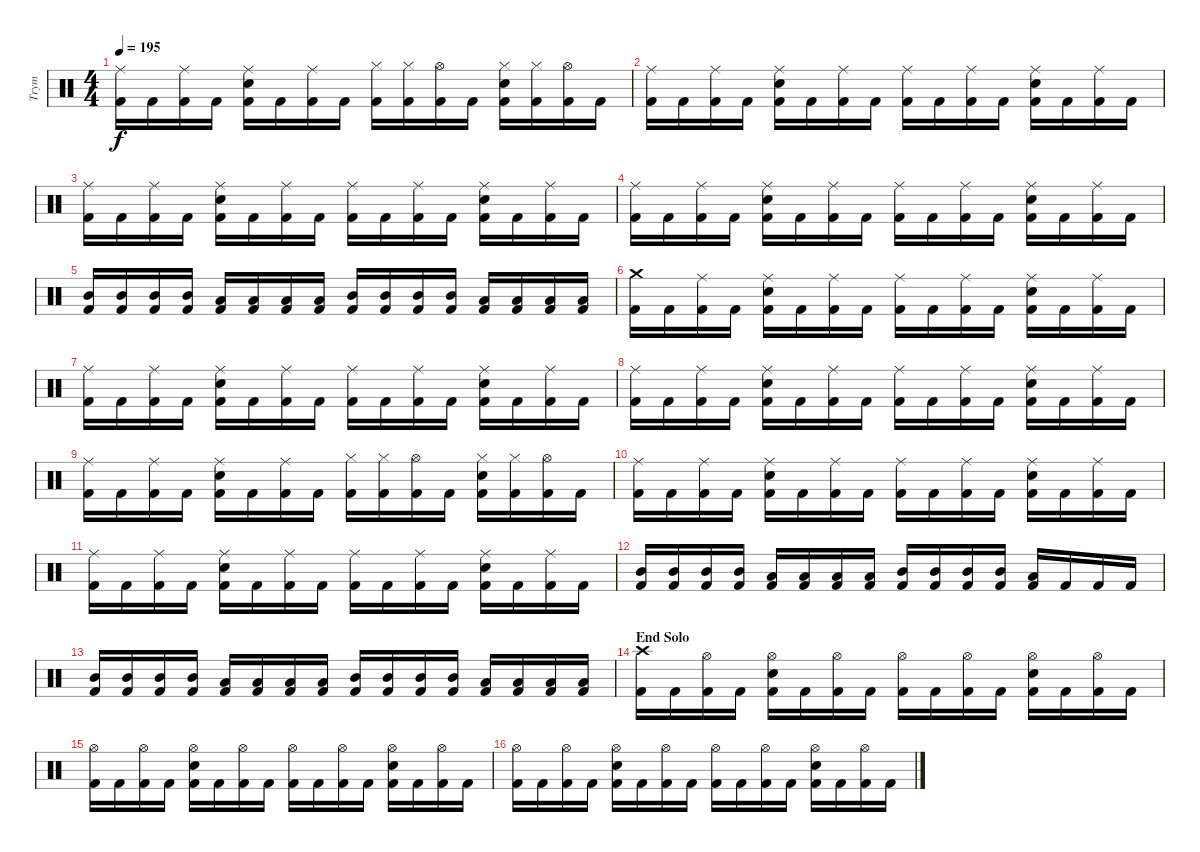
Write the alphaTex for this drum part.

\track ("Trym" "Trym") {instrument percussion}
\staff {score}
\articulation defaults
\ts (4 4)
\tempo 195
\clef neutral
\ks c
("Ride (middle)" "Kick (hit) 2").16{dy f} "Kick (hit) 2".16 ("Ride (middle)" "Kick (hit) 2").16 "Kick (hit) 2".16 ("Ride (middle)" "Electric Snare (hit)" "Kick (hit) 2").16 "Kick (hit) 2".16 ("Ride (middle)" "Kick (hit) 2").16 "Kick (hit) 2".16 ("Hi-Hat (closed)" "Kick (hit) 2").16 ("Hi-Hat (closed)" "Kick (hit) 2").16 ("Hi-Hat (open)" "Kick (hit) 2").16 "Kick (hit) 2".16 ("Hi-Hat (closed)" "Electric Snare (hit)" "Kick (hit) 2").16 ("Hi-Hat (closed)" "Kick (hit) 2").16 ("Hi-Hat (open)" "Kick (hit) 2").16 "Kick (hit) 2".16 |
("Ride (middle)" "Kick (hit) 2").16 "Kick (hit) 2".16 ("Ride (middle)" "Kick (hit) 2").16 "Kick (hit) 2".16 ("Ride (middle)" "Electric Snare (hit)" "Kick (hit) 2").16 "Kick (hit) 2".16 ("Ride (middle)" "Kick (hit) 2").16 "Kick (hit) 2".16 ("Ride (middle)" "Kick (hit) 2").16 "Kick (hit) 2".16 ("Ride (middle)" "Kick (hit) 2").16 "Kick (hit) 2".16 ("Ride (middle)" "Electric Snare (hit)" "Kick (hit) 2").16 "Kick (hit) 2".16 ("Ride (middle)" "Kick (hit) 2").16 "Kick (hit) 2".16 |
("Ride (middle)" "Kick (hit) 2").16 "Kick (hit) 2".16 ("Ride (middle)" "Kick (hit) 2").16 "Kick (hit) 2".16 ("Ride (middle)" "Electric Snare (hit)" "Kick (hit) 2").16 "Kick (hit) 2".16 ("Ride (middle)" "Kick (hit) 2").16 "Kick (hit) 2".16 ("Ride (middle)" "Kick (hit) 2").16 "Kick (hit) 2".16 ("Ride (middle)" "Kick (hit) 2").16 "Kick (hit) 2".16 ("Ride (middle)" "Electric Snare (hit)" "Kick (hit) 2").16 "Kick (hit) 2".16 ("Ride (middle)" "Kick (hit) 2").16 "Kick (hit) 2".16 |
("Ride (middle)" "Kick (hit) 2").16 "Kick (hit) 2".16 ("Ride (middle)" "Kick (hit) 2").16 "Kick (hit) 2".16 ("Ride (middle)" "Electric Snare (hit)" "Kick (hit) 2").16 "Kick (hit) 2".16 ("Ride (middle)" "Kick (hit) 2").16 "Kick (hit) 2".16 ("Ride (middle)" "Kick (hit) 2").16 "Kick (hit) 2".16 ("Ride (middle)" "Kick (hit) 2").16 "Kick (hit) 2".16 ("Ride (middle)" "Electric Snare (hit)" "Kick (hit) 2").16 "Kick (hit) 2".16 ("Ride (middle)" "Kick (hit) 2").16 "Kick (hit) 2".16 |
("Mid Tom (hit)" "Kick (hit) 2").16 ("Mid Tom (hit)" "Kick (hit) 2").16 ("Mid Tom (hit)" "Kick (hit) 2").16 ("Mid Tom (hit)" "Kick (hit) 2").16 ("Low Tom (hit)" "Kick (hit) 2").16 ("Low Tom (hit)" "Kick (hit) 2").16 ("Low Tom (hit)" "Kick (hit) 2").16 ("Low Tom (hit)" "Kick (hit) 2").16 ("Mid Tom (hit)" "Kick (hit) 2").16 ("Mid Tom (hit)" "Kick (hit) 2").16 ("Mid Tom (hit)" "Kick (hit) 2").16 ("Mid Tom (hit)" "Kick (hit) 2").16 ("Low Tom (hit)" "Kick (hit) 2").16 ("Low Tom (hit)" "Kick (hit) 2").16 ("Low Tom (hit)" "Kick (hit) 2").16 ("Low Tom (hit)" "Kick (hit) 2").16 |
("Crash medium (hit)" "Kick (hit) 2").16 "Kick (hit) 2".16 ("Ride (middle)" "Kick (hit) 2").16 "Kick (hit) 2".16 ("Ride (middle)" "Electric Snare (hit)" "Kick (hit) 2").16 "Kick (hit) 2".16 ("Ride (middle)" "Kick (hit) 2").16 "Kick (hit) 2".16 ("Ride (middle)" "Kick (hit) 2").16 "Kick (hit) 2".16 ("Ride (middle)" "Kick (hit) 2").16 "Kick (hit) 2".16 ("Ride (middle)" "Electric Snare (hit)" "Kick (hit) 2").16 "Kick (hit) 2".16 ("Ride (middle)" "Kick (hit) 2").16 "Kick (hit) 2".16 |
("Ride (middle)" "Kick (hit) 2").16 "Kick (hit) 2".16 ("Ride (middle)" "Kick (hit) 2").16 "Kick (hit) 2".16 ("Ride (middle)" "Electric Snare (hit)" "Kick (hit) 2").16 "Kick (hit) 2".16 ("Ride (middle)" "Kick (hit) 2").16 "Kick (hit) 2".16 ("Ride (middle)" "Kick (hit) 2").16 "Kick (hit) 2".16 ("Ride (middle)" "Kick (hit) 2").16 "Kick (hit) 2".16 ("Ride (middle)" "Electric Snare (hit)" "Kick (hit) 2").16 "Kick (hit) 2".16 ("Ride (middle)" "Kick (hit) 2").16 "Kick (hit) 2".16 |
("Ride (middle)" "Kick (hit) 2").16 "Kick (hit) 2".16 ("Ride (middle)" "Kick (hit) 2").16 "Kick (hit) 2".16 ("Ride (middle)" "Electric Snare (hit)" "Kick (hit) 2").16 "Kick (hit) 2".16 ("Ride (middle)" "Kick (hit) 2").16 "Kick (hit) 2".16 ("Ride (middle)" "Kick (hit) 2").16 "Kick (hit) 2".16 ("Ride (middle)" "Kick (hit) 2").16 "Kick (hit) 2".16 ("Ride (middle)" "Electric Snare (hit)" "Kick (hit) 2").16 "Kick (hit) 2".16 ("Ride (middle)" "Kick (hit) 2").16 "Kick (hit) 2".16 |
("Ride (middle)" "Kick (hit) 2").16 "Kick (hit) 2".16 ("Ride (middle)" "Kick (hit) 2").16 "Kick (hit) 2".16 ("Ride (middle)" "Electric Snare (hit)" "Kick (hit) 2").16 "Kick (hit) 2".16 ("Ride (middle)" "Kick (hit) 2").16 "Kick (hit) 2".16 ("Hi-Hat (closed)" "Kick (hit) 2").16 ("Hi-Hat (closed)" "Kick (hit) 2").16 ("Hi-Hat (open)" "Kick (hit) 2").16 "Kick (hit) 2".16 ("Hi-Hat (closed)" "Electric Snare (hit)" "Kick (hit) 2").16 ("Hi-Hat (closed)" "Kick (hit) 2").16 ("Hi-Hat (open)" "Kick (hit) 2").16 "Kick (hit) 2".16 |
("Ride (middle)" "Kick (hit) 2").16 "Kick (hit) 2".16 ("Ride (middle)" "Kick (hit) 2").16 "Kick (hit) 2".16 ("Ride (middle)" "Electric Snare (hit)" "Kick (hit) 2").16 "Kick (hit) 2".16 ("Ride (middle)" "Kick (hit) 2").16 "Kick (hit) 2".16 ("Ride (middle)" "Kick (hit) 2").16 "Kick (hit) 2".16 ("Ride (middle)" "Kick (hit) 2").16 "Kick (hit) 2".16 ("Ride (middle)" "Electric Snare (hit)" "Kick (hit) 2").16 "Kick (hit) 2".16 ("Ride (middle)" "Kick (hit) 2").16 "Kick (hit) 2".16 |
("Ride (middle)" "Kick (hit) 2").16 "Kick (hit) 2".16 ("Ride (middle)" "Kick (hit) 2").16 "Kick (hit) 2".16 ("Ride (middle)" "Electric Snare (hit)" "Kick (hit) 2").16 "Kick (hit) 2".16 ("Ride (middle)" "Kick (hit) 2").16 "Kick (hit) 2".16 ("Ride (middle)" "Kick (hit) 2").16 "Kick (hit) 2".16 ("Ride (middle)" "Kick (hit) 2").16 "Kick (hit) 2".16 ("Ride (middle)" "Electric Snare (hit)" "Kick (hit) 2").16 "Kick (hit) 2".16 ("Ride (middle)" "Kick (hit) 2").16 "Kick (hit) 2".16 |
("Mid Tom (hit)" "Kick (hit) 2").16 ("Mid Tom (hit)" "Kick (hit) 2").16 ("Mid Tom (hit)" "Kick (hit) 2").16 ("Mid Tom (hit)" "Kick (hit) 2").16 ("Low Tom (hit)" "Kick (hit) 2").16 ("Low Tom (hit)" "Kick (hit) 2").16 ("Low Tom (hit)" "Kick (hit) 2").16 ("Low Tom (hit)" "Kick (hit) 2").16 ("Mid Tom (hit)" "Kick (hit) 2").16 ("Mid Tom (hit)" "Kick (hit) 2").16 ("Mid Tom (hit)" "Kick (hit) 2").16 ("Mid Tom (hit)" "Kick (hit) 2").16 ("Low Tom (hit)" "Kick (hit) 2").16 "Kick (hit) 2".16 "Kick (hit) 2".16 "Kick (hit) 2".16 |
("Mid Tom (hit)" "Kick (hit) 2").16 ("Mid Tom (hit)" "Kick (hit) 2").16 ("Mid Tom (hit)" "Kick (hit) 2").16 ("Mid Tom (hit)" "Kick (hit) 2").16 ("Low Tom (hit)" "Kick (hit) 2").16 ("Low Tom (hit)" "Kick (hit) 2").16 ("Low Tom (hit)" "Kick (hit) 2").16 ("Low Tom (hit)" "Kick (hit) 2").16 ("Mid Tom (hit)" "Kick (hit) 2").16 ("Mid Tom (hit)" "Kick (hit) 2").16 ("Mid Tom (hit)" "Kick (hit) 2").16 ("Mid Tom (hit)" "Kick (hit) 2").16 ("Low Tom (hit)" "Kick (hit) 2").16 ("Low Tom (hit)" "Kick (hit) 2").16 ("Low Tom (hit)" "Kick (hit) 2").16 ("Low Tom (hit)" "Kick (hit) 2").16 |
\section ("" "End Solo")
("Crash high (hit)" "Kick (hit) 2").16 "Kick (hit) 2".16 ("Hi-Hat (open)" "Kick (hit) 2").16 "Kick (hit) 2".16 ("Hi-Hat (open)" "Electric Snare (hit)" "Kick (hit) 2").16 "Kick (hit) 2".16 ("Hi-Hat (open)" "Kick (hit) 2").16 "Kick (hit) 2".16 ("Hi-Hat (open)" "Kick (hit) 2").16 "Kick (hit) 2".16 ("Hi-Hat (open)" "Kick (hit) 2").16 "Kick (hit) 2".16 ("Hi-Hat (open)" "Electric Snare (hit)" "Kick (hit) 2").16 "Kick (hit) 2".16 ("Hi-Hat (open)" "Kick (hit) 2").16 "Kick (hit) 2".16 |
("Hi-Hat (open)" "Kick (hit) 2").16 "Kick (hit) 2".16 ("Hi-Hat (open)" "Kick (hit) 2").16 "Kick (hit) 2".16 ("Hi-Hat (open)" "Electric Snare (hit)" "Kick (hit) 2").16 "Kick (hit) 2".16 ("Hi-Hat (open)" "Kick (hit) 2").16 "Kick (hit) 2".16 ("Hi-Hat (open)" "Kick (hit) 2").16 "Kick (hit) 2".16 ("Hi-Hat (open)" "Kick (hit) 2").16 "Kick (hit) 2".16 ("Hi-Hat (open)" "Electric Snare (hit)" "Kick (hit) 2").16 "Kick (hit) 2".16 ("Hi-Hat (open)" "Kick (hit) 2").16 "Kick (hit) 2".16 |
("Hi-Hat (open)" "Kick (hit) 2").16 "Kick (hit) 2".16 ("Hi-Hat (open)" "Kick (hit) 2").16 "Kick (hit) 2".16 ("Hi-Hat (open)" "Electric Snare (hit)" "Kick (hit) 2").16 "Kick (hit) 2".16 ("Hi-Hat (open)" "Kick (hit) 2").16 "Kick (hit) 2".16 ("Hi-Hat (open)" "Kick (hit) 2").16 "Kick (hit) 2".16 ("Hi-Hat (open)" "Kick (hit) 2").16 "Kick (hit) 2".16 ("Hi-Hat (open)" "Electric Snare (hit)" "Kick (hit) 2").16 "Kick (hit) 2".16 ("Hi-Hat (open)" "Kick (hit) 2").16 "Kick (hit) 2".16
